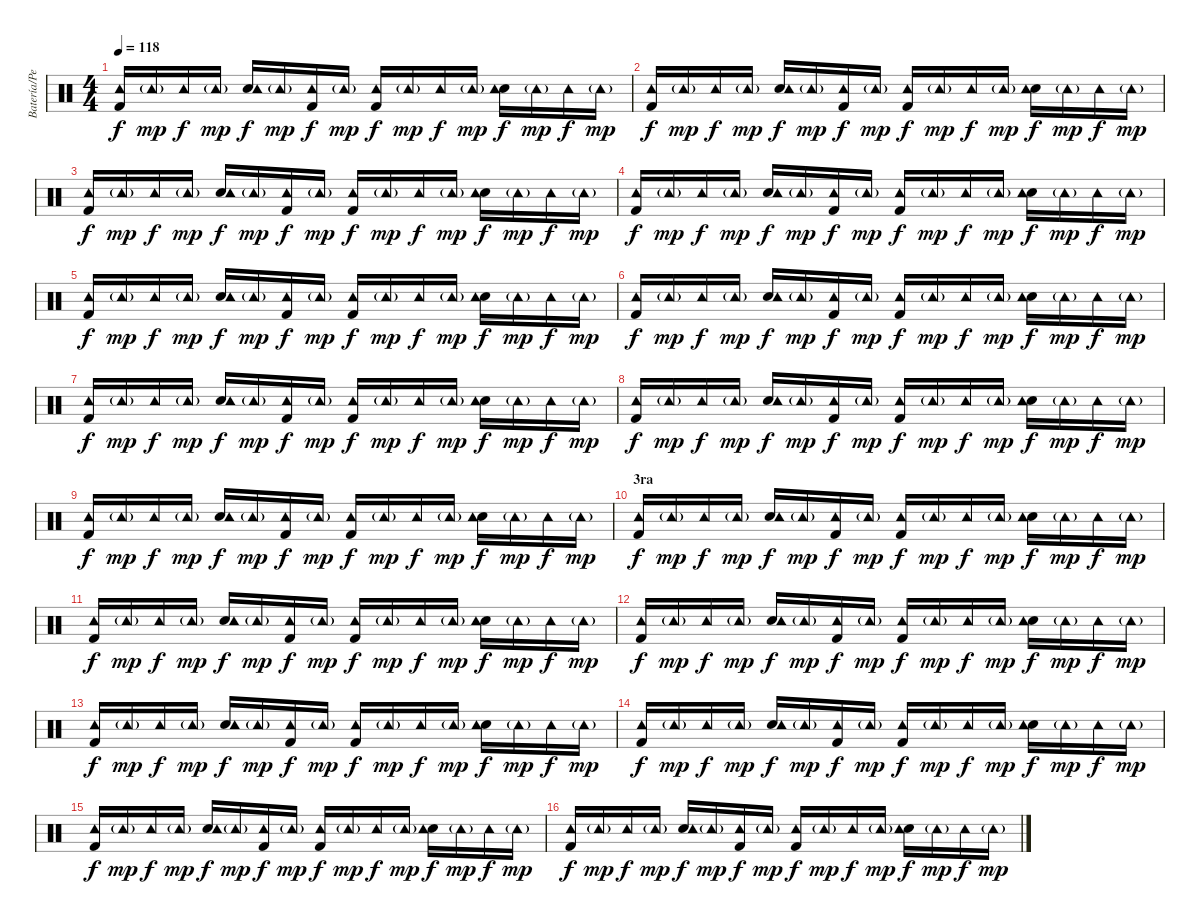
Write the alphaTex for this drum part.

\track ("Batería/Percusión" "Batería/Pe") {instrument percussion}
\staff {score}
\articulation defaults
\ts (4 4)
\section ("" "")
\tempo 118
\clef neutral
\ks c
("Kick (hit) 2" "Tambourine (hit)").16{dy f} "Tambourine (hit)"{g}.16{dy mp} "Tambourine (hit)".16{dy f} "Tambourine (hit)"{g}.16{dy mp} ("Electric Snare (hit)" "Tambourine (hit)").16{dy f} "Tambourine (hit)"{g}.16{dy mp} ("Kick (hit) 2" "Tambourine (hit)").16{dy f} "Tambourine (hit)"{g}.16{dy mp} ("Kick (hit) 2" "Tambourine (hit)").16{dy f} "Tambourine (hit)"{g}.16{dy mp} "Tambourine (hit)".16{dy f} "Tambourine (hit)"{g}.16{dy mp} ("Electric Snare (hit)" "Tambourine (hit)").16{dy f} "Tambourine (hit)"{g}.16{dy mp} "Tambourine (hit)".16{dy f} "Tambourine (hit)"{g}.16{dy mp} |
("Kick (hit) 2" "Tambourine (hit)").16{dy f} "Tambourine (hit)"{g}.16{dy mp} "Tambourine (hit)".16{dy f} "Tambourine (hit)"{g}.16{dy mp} ("Electric Snare (hit)" "Tambourine (hit)").16{dy f} "Tambourine (hit)"{g}.16{dy mp} ("Kick (hit) 2" "Tambourine (hit)").16{dy f} "Tambourine (hit)"{g}.16{dy mp} ("Kick (hit) 2" "Tambourine (hit)").16{dy f} "Tambourine (hit)"{g}.16{dy mp} "Tambourine (hit)".16{dy f} "Tambourine (hit)"{g}.16{dy mp} ("Electric Snare (hit)" "Tambourine (hit)").16{dy f} "Tambourine (hit)"{g}.16{dy mp} "Tambourine (hit)".16{dy f} "Tambourine (hit)"{g}.16{dy mp} |
("Kick (hit) 2" "Tambourine (hit)").16{dy f} "Tambourine (hit)"{g}.16{dy mp} "Tambourine (hit)".16{dy f} "Tambourine (hit)"{g}.16{dy mp} ("Electric Snare (hit)" "Tambourine (hit)").16{dy f} "Tambourine (hit)"{g}.16{dy mp} ("Kick (hit) 2" "Tambourine (hit)").16{dy f} "Tambourine (hit)"{g}.16{dy mp} ("Kick (hit) 2" "Tambourine (hit)").16{dy f} "Tambourine (hit)"{g}.16{dy mp} "Tambourine (hit)".16{dy f} "Tambourine (hit)"{g}.16{dy mp} ("Electric Snare (hit)" "Tambourine (hit)").16{dy f} "Tambourine (hit)"{g}.16{dy mp} "Tambourine (hit)".16{dy f} "Tambourine (hit)"{g}.16{dy mp} |
("Kick (hit) 2" "Tambourine (hit)").16{dy f} "Tambourine (hit)"{g}.16{dy mp} "Tambourine (hit)".16{dy f} "Tambourine (hit)"{g}.16{dy mp} ("Electric Snare (hit)" "Tambourine (hit)").16{dy f} "Tambourine (hit)"{g}.16{dy mp} ("Kick (hit) 2" "Tambourine (hit)").16{dy f} "Tambourine (hit)"{g}.16{dy mp} ("Kick (hit) 2" "Tambourine (hit)").16{dy f} "Tambourine (hit)"{g}.16{dy mp} "Tambourine (hit)".16{dy f} "Tambourine (hit)"{g}.16{dy mp} ("Electric Snare (hit)" "Tambourine (hit)").16{dy f} "Tambourine (hit)"{g}.16{dy mp} "Tambourine (hit)".16{dy f} "Tambourine (hit)"{g}.16{dy mp} |
("Kick (hit) 2" "Tambourine (hit)").16{dy f} "Tambourine (hit)"{g}.16{dy mp} "Tambourine (hit)".16{dy f} "Tambourine (hit)"{g}.16{dy mp} ("Electric Snare (hit)" "Tambourine (hit)").16{dy f} "Tambourine (hit)"{g}.16{dy mp} ("Kick (hit) 2" "Tambourine (hit)").16{dy f} "Tambourine (hit)"{g}.16{dy mp} ("Kick (hit) 2" "Tambourine (hit)").16{dy f} "Tambourine (hit)"{g}.16{dy mp} "Tambourine (hit)".16{dy f} "Tambourine (hit)"{g}.16{dy mp} ("Electric Snare (hit)" "Tambourine (hit)").16{dy f} "Tambourine (hit)"{g}.16{dy mp} "Tambourine (hit)".16{dy f} "Tambourine (hit)"{g}.16{dy mp} |
("Kick (hit) 2" "Tambourine (hit)").16{dy f} "Tambourine (hit)"{g}.16{dy mp} "Tambourine (hit)".16{dy f} "Tambourine (hit)"{g}.16{dy mp} ("Electric Snare (hit)" "Tambourine (hit)").16{dy f} "Tambourine (hit)"{g}.16{dy mp} ("Kick (hit) 2" "Tambourine (hit)").16{dy f} "Tambourine (hit)"{g}.16{dy mp} ("Kick (hit) 2" "Tambourine (hit)").16{dy f} "Tambourine (hit)"{g}.16{dy mp} "Tambourine (hit)".16{dy f} "Tambourine (hit)"{g}.16{dy mp} ("Electric Snare (hit)" "Tambourine (hit)").16{dy f} "Tambourine (hit)"{g}.16{dy mp} "Tambourine (hit)".16{dy f} "Tambourine (hit)"{g}.16{dy mp} |
("Kick (hit) 2" "Tambourine (hit)").16{dy f} "Tambourine (hit)"{g}.16{dy mp} "Tambourine (hit)".16{dy f} "Tambourine (hit)"{g}.16{dy mp} ("Electric Snare (hit)" "Tambourine (hit)").16{dy f} "Tambourine (hit)"{g}.16{dy mp} ("Kick (hit) 2" "Tambourine (hit)").16{dy f} "Tambourine (hit)"{g}.16{dy mp} ("Kick (hit) 2" "Tambourine (hit)").16{dy f} "Tambourine (hit)"{g}.16{dy mp} "Tambourine (hit)".16{dy f} "Tambourine (hit)"{g}.16{dy mp} ("Electric Snare (hit)" "Tambourine (hit)").16{dy f} "Tambourine (hit)"{g}.16{dy mp} "Tambourine (hit)".16{dy f} "Tambourine (hit)"{g}.16{dy mp} |
("Kick (hit) 2" "Tambourine (hit)").16{dy f} "Tambourine (hit)"{g}.16{dy mp} "Tambourine (hit)".16{dy f} "Tambourine (hit)"{g}.16{dy mp} ("Electric Snare (hit)" "Tambourine (hit)").16{dy f} "Tambourine (hit)"{g}.16{dy mp} ("Kick (hit) 2" "Tambourine (hit)").16{dy f} "Tambourine (hit)"{g}.16{dy mp} ("Kick (hit) 2" "Tambourine (hit)").16{dy f} "Tambourine (hit)"{g}.16{dy mp} "Tambourine (hit)".16{dy f} "Tambourine (hit)"{g}.16{dy mp} ("Electric Snare (hit)" "Tambourine (hit)").16{dy f} "Tambourine (hit)"{g}.16{dy mp} "Tambourine (hit)".16{dy f} "Tambourine (hit)"{g}.16{dy mp} |
("Kick (hit) 2" "Tambourine (hit)").16{dy f} "Tambourine (hit)"{g}.16{dy mp} "Tambourine (hit)".16{dy f} "Tambourine (hit)"{g}.16{dy mp} ("Electric Snare (hit)" "Tambourine (hit)").16{dy f} "Tambourine (hit)"{g}.16{dy mp} ("Kick (hit) 2" "Tambourine (hit)").16{dy f} "Tambourine (hit)"{g}.16{dy mp} ("Kick (hit) 2" "Tambourine (hit)").16{dy f} "Tambourine (hit)"{g}.16{dy mp} "Tambourine (hit)".16{dy f} "Tambourine (hit)"{g}.16{dy mp} ("Electric Snare (hit)" "Tambourine (hit)").16{dy f} "Tambourine (hit)"{g}.16{dy mp} "Tambourine (hit)".16{dy f} "Tambourine (hit)"{g}.16{dy mp} |
\section ("" "3ra")
("Kick (hit) 2" "Tambourine (hit)").16{dy f} "Tambourine (hit)"{g}.16{dy mp} "Tambourine (hit)".16{dy f} "Tambourine (hit)"{g}.16{dy mp} ("Electric Snare (hit)" "Tambourine (hit)").16{dy f} "Tambourine (hit)"{g}.16{dy mp} ("Kick (hit) 2" "Tambourine (hit)").16{dy f} "Tambourine (hit)"{g}.16{dy mp} ("Kick (hit) 2" "Tambourine (hit)").16{dy f} "Tambourine (hit)"{g}.16{dy mp} "Tambourine (hit)".16{dy f} "Tambourine (hit)"{g}.16{dy mp} ("Electric Snare (hit)" "Tambourine (hit)").16{dy f} "Tambourine (hit)"{g}.16{dy mp} "Tambourine (hit)".16{dy f} "Tambourine (hit)"{g}.16{dy mp} |
("Kick (hit) 2" "Tambourine (hit)").16{dy f} "Tambourine (hit)"{g}.16{dy mp} "Tambourine (hit)".16{dy f} "Tambourine (hit)"{g}.16{dy mp} ("Electric Snare (hit)" "Tambourine (hit)").16{dy f} "Tambourine (hit)"{g}.16{dy mp} ("Kick (hit) 2" "Tambourine (hit)").16{dy f} "Tambourine (hit)"{g}.16{dy mp} ("Kick (hit) 2" "Tambourine (hit)").16{dy f} "Tambourine (hit)"{g}.16{dy mp} "Tambourine (hit)".16{dy f} "Tambourine (hit)"{g}.16{dy mp} ("Electric Snare (hit)" "Tambourine (hit)").16{dy f} "Tambourine (hit)"{g}.16{dy mp} "Tambourine (hit)".16{dy f} "Tambourine (hit)"{g}.16{dy mp} |
("Kick (hit) 2" "Tambourine (hit)").16{dy f} "Tambourine (hit)"{g}.16{dy mp} "Tambourine (hit)".16{dy f} "Tambourine (hit)"{g}.16{dy mp} ("Electric Snare (hit)" "Tambourine (hit)").16{dy f} "Tambourine (hit)"{g}.16{dy mp} ("Kick (hit) 2" "Tambourine (hit)").16{dy f} "Tambourine (hit)"{g}.16{dy mp} ("Kick (hit) 2" "Tambourine (hit)").16{dy f} "Tambourine (hit)"{g}.16{dy mp} "Tambourine (hit)".16{dy f} "Tambourine (hit)"{g}.16{dy mp} ("Electric Snare (hit)" "Tambourine (hit)").16{dy f} "Tambourine (hit)"{g}.16{dy mp} "Tambourine (hit)".16{dy f} "Tambourine (hit)"{g}.16{dy mp} |
("Kick (hit) 2" "Tambourine (hit)").16{dy f} "Tambourine (hit)"{g}.16{dy mp} "Tambourine (hit)".16{dy f} "Tambourine (hit)"{g}.16{dy mp} ("Electric Snare (hit)" "Tambourine (hit)").16{dy f} "Tambourine (hit)"{g}.16{dy mp} ("Kick (hit) 2" "Tambourine (hit)").16{dy f} "Tambourine (hit)"{g}.16{dy mp} ("Kick (hit) 2" "Tambourine (hit)").16{dy f} "Tambourine (hit)"{g}.16{dy mp} "Tambourine (hit)".16{dy f} "Tambourine (hit)"{g}.16{dy mp} ("Electric Snare (hit)" "Tambourine (hit)").16{dy f} "Tambourine (hit)"{g}.16{dy mp} "Tambourine (hit)".16{dy f} "Tambourine (hit)"{g}.16{dy mp} |
("Kick (hit) 2" "Tambourine (hit)").16{dy f} "Tambourine (hit)"{g}.16{dy mp} "Tambourine (hit)".16{dy f} "Tambourine (hit)"{g}.16{dy mp} ("Electric Snare (hit)" "Tambourine (hit)").16{dy f} "Tambourine (hit)"{g}.16{dy mp} ("Kick (hit) 2" "Tambourine (hit)").16{dy f} "Tambourine (hit)"{g}.16{dy mp} ("Kick (hit) 2" "Tambourine (hit)").16{dy f} "Tambourine (hit)"{g}.16{dy mp} "Tambourine (hit)".16{dy f} "Tambourine (hit)"{g}.16{dy mp} ("Electric Snare (hit)" "Tambourine (hit)").16{dy f} "Tambourine (hit)"{g}.16{dy mp} "Tambourine (hit)".16{dy f} "Tambourine (hit)"{g}.16{dy mp} |
("Kick (hit) 2" "Tambourine (hit)").16{dy f} "Tambourine (hit)"{g}.16{dy mp} "Tambourine (hit)".16{dy f} "Tambourine (hit)"{g}.16{dy mp} ("Electric Snare (hit)" "Tambourine (hit)").16{dy f} "Tambourine (hit)"{g}.16{dy mp} ("Kick (hit) 2" "Tambourine (hit)").16{dy f} "Tambourine (hit)"{g}.16{dy mp} ("Kick (hit) 2" "Tambourine (hit)").16{dy f} "Tambourine (hit)"{g}.16{dy mp} "Tambourine (hit)".16{dy f} "Tambourine (hit)"{g}.16{dy mp} ("Electric Snare (hit)" "Tambourine (hit)").16{dy f} "Tambourine (hit)"{g}.16{dy mp} "Tambourine (hit)".16{dy f} "Tambourine (hit)"{g}.16{dy mp} |
("Kick (hit) 2" "Tambourine (hit)").16{dy f} "Tambourine (hit)"{g}.16{dy mp} "Tambourine (hit)".16{dy f} "Tambourine (hit)"{g}.16{dy mp} ("Electric Snare (hit)" "Tambourine (hit)").16{dy f} "Tambourine (hit)"{g}.16{dy mp} ("Kick (hit) 2" "Tambourine (hit)").16{dy f} "Tambourine (hit)"{g}.16{dy mp} ("Kick (hit) 2" "Tambourine (hit)").16{dy f} "Tambourine (hit)"{g}.16{dy mp} "Tambourine (hit)".16{dy f} "Tambourine (hit)"{g}.16{dy mp} ("Electric Snare (hit)" "Tambourine (hit)").16{dy f} "Tambourine (hit)"{g}.16{dy mp} "Tambourine (hit)".16{dy f} "Tambourine (hit)"{g}.16{dy mp}
